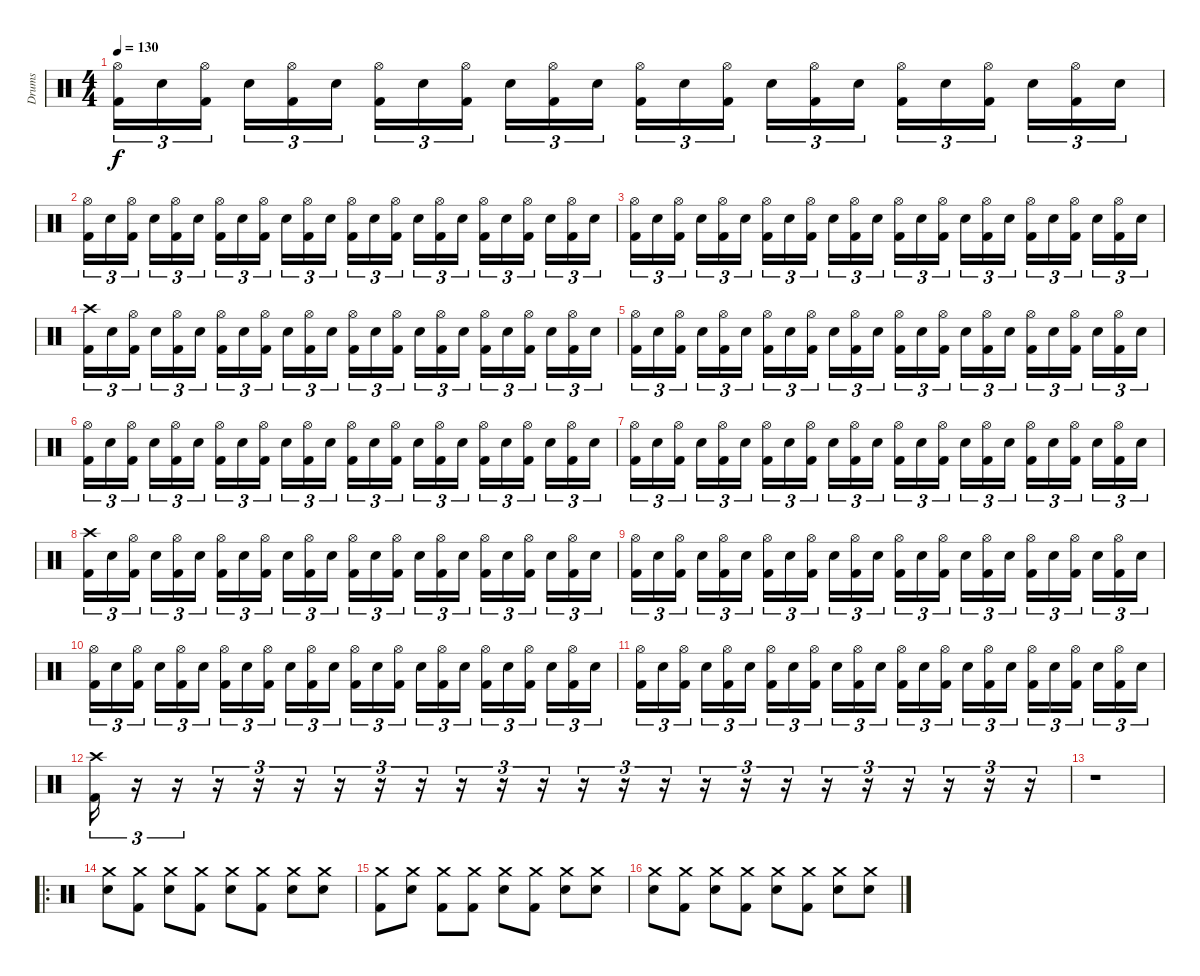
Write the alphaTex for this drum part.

\track ("Drums" "Drums") {instrument percussion}
\staff {score}
\articulation defaults
\ts (4 4)
\tempo 130
\clef neutral
\ks c
("Hi-Hat (open)" "Kick (hit) 2").16{tu (3 2) dy f} "Electric Snare (hit)".16{tu (3 2)} ("Hi-Hat (open)" "Kick (hit) 2").16{tu (3 2)} "Electric Snare (hit)".16{tu (3 2)} ("Hi-Hat (open)" "Kick (hit) 2").16{tu (3 2)} "Electric Snare (hit)".16{tu (3 2)} ("Hi-Hat (open)" "Kick (hit) 2").16{tu (3 2)} "Electric Snare (hit)".16{tu (3 2)} ("Hi-Hat (open)" "Kick (hit) 2").16{tu (3 2)} "Electric Snare (hit)".16{tu (3 2)} ("Hi-Hat (open)" "Kick (hit) 2").16{tu (3 2)} "Electric Snare (hit)".16{tu (3 2)} ("Hi-Hat (open)" "Kick (hit) 2").16{tu (3 2)} "Electric Snare (hit)".16{tu (3 2)} ("Hi-Hat (open)" "Kick (hit) 2").16{tu (3 2)} "Electric Snare (hit)".16{tu (3 2)} ("Hi-Hat (open)" "Kick (hit) 2").16{tu (3 2)} "Electric Snare (hit)".16{tu (3 2)} ("Hi-Hat (open)" "Kick (hit) 2").16{tu (3 2)} "Electric Snare (hit)".16{tu (3 2)} ("Hi-Hat (open)" "Kick (hit) 2").16{tu (3 2)} "Electric Snare (hit)".16{tu (3 2)} ("Hi-Hat (open)" "Kick (hit) 2").16{tu (3 2)} "Electric Snare (hit)".16{tu (3 2)} |
("Hi-Hat (open)" "Kick (hit) 2").16{tu (3 2)} "Electric Snare (hit)".16{tu (3 2)} ("Hi-Hat (open)" "Kick (hit) 2").16{tu (3 2)} "Electric Snare (hit)".16{tu (3 2)} ("Hi-Hat (open)" "Kick (hit) 2").16{tu (3 2)} "Electric Snare (hit)".16{tu (3 2)} ("Hi-Hat (open)" "Kick (hit) 2").16{tu (3 2)} "Electric Snare (hit)".16{tu (3 2)} ("Hi-Hat (open)" "Kick (hit) 2").16{tu (3 2)} "Electric Snare (hit)".16{tu (3 2)} ("Hi-Hat (open)" "Kick (hit) 2").16{tu (3 2)} "Electric Snare (hit)".16{tu (3 2)} ("Hi-Hat (open)" "Kick (hit) 2").16{tu (3 2)} "Electric Snare (hit)".16{tu (3 2)} ("Hi-Hat (open)" "Kick (hit) 2").16{tu (3 2)} "Electric Snare (hit)".16{tu (3 2)} ("Hi-Hat (open)" "Kick (hit) 2").16{tu (3 2)} "Electric Snare (hit)".16{tu (3 2)} ("Hi-Hat (open)" "Kick (hit) 2").16{tu (3 2)} "Electric Snare (hit)".16{tu (3 2)} ("Hi-Hat (open)" "Kick (hit) 2").16{tu (3 2)} "Electric Snare (hit)".16{tu (3 2)} ("Hi-Hat (open)" "Kick (hit) 2").16{tu (3 2)} "Electric Snare (hit)".16{tu (3 2)} |
("Hi-Hat (open)" "Kick (hit) 2").16{tu (3 2)} "Electric Snare (hit)".16{tu (3 2)} ("Hi-Hat (open)" "Kick (hit) 2").16{tu (3 2)} "Electric Snare (hit)".16{tu (3 2)} ("Hi-Hat (open)" "Kick (hit) 2").16{tu (3 2)} "Electric Snare (hit)".16{tu (3 2)} ("Hi-Hat (open)" "Kick (hit) 2").16{tu (3 2)} "Electric Snare (hit)".16{tu (3 2)} ("Hi-Hat (open)" "Kick (hit) 2").16{tu (3 2)} "Electric Snare (hit)".16{tu (3 2)} ("Hi-Hat (open)" "Kick (hit) 2").16{tu (3 2)} "Electric Snare (hit)".16{tu (3 2)} ("Hi-Hat (open)" "Kick (hit) 2").16{tu (3 2)} "Electric Snare (hit)".16{tu (3 2)} ("Hi-Hat (open)" "Kick (hit) 2").16{tu (3 2)} "Electric Snare (hit)".16{tu (3 2)} ("Hi-Hat (open)" "Kick (hit) 2").16{tu (3 2)} "Electric Snare (hit)".16{tu (3 2)} ("Hi-Hat (open)" "Kick (hit) 2").16{tu (3 2)} "Electric Snare (hit)".16{tu (3 2)} ("Hi-Hat (open)" "Kick (hit) 2").16{tu (3 2)} "Electric Snare (hit)".16{tu (3 2)} ("Hi-Hat (open)" "Kick (hit) 2").16{tu (3 2)} "Electric Snare (hit)".16{tu (3 2)} |
("Crash high (hit)" "Kick (hit) 2").16{tu (3 2)} "Electric Snare (hit)".16{tu (3 2)} ("Hi-Hat (open)" "Kick (hit) 2").16{tu (3 2)} "Electric Snare (hit)".16{tu (3 2)} ("Hi-Hat (open)" "Kick (hit) 2").16{tu (3 2)} "Electric Snare (hit)".16{tu (3 2)} ("Hi-Hat (open)" "Kick (hit) 2").16{tu (3 2)} "Electric Snare (hit)".16{tu (3 2)} ("Hi-Hat (open)" "Kick (hit) 2").16{tu (3 2)} "Electric Snare (hit)".16{tu (3 2)} ("Hi-Hat (open)" "Kick (hit) 2").16{tu (3 2)} "Electric Snare (hit)".16{tu (3 2)} ("Hi-Hat (open)" "Kick (hit) 2").16{tu (3 2)} "Electric Snare (hit)".16{tu (3 2)} ("Hi-Hat (open)" "Kick (hit) 2").16{tu (3 2)} "Electric Snare (hit)".16{tu (3 2)} ("Hi-Hat (open)" "Kick (hit) 2").16{tu (3 2)} "Electric Snare (hit)".16{tu (3 2)} ("Hi-Hat (open)" "Kick (hit) 2").16{tu (3 2)} "Electric Snare (hit)".16{tu (3 2)} ("Hi-Hat (open)" "Kick (hit) 2").16{tu (3 2)} "Electric Snare (hit)".16{tu (3 2)} ("Hi-Hat (open)" "Kick (hit) 2").16{tu (3 2)} "Electric Snare (hit)".16{tu (3 2)} |
("Hi-Hat (open)" "Kick (hit) 2").16{tu (3 2)} "Electric Snare (hit)".16{tu (3 2)} ("Hi-Hat (open)" "Kick (hit) 2").16{tu (3 2)} "Electric Snare (hit)".16{tu (3 2)} ("Hi-Hat (open)" "Kick (hit) 2").16{tu (3 2)} "Electric Snare (hit)".16{tu (3 2)} ("Hi-Hat (open)" "Kick (hit) 2").16{tu (3 2)} "Electric Snare (hit)".16{tu (3 2)} ("Hi-Hat (open)" "Kick (hit) 2").16{tu (3 2)} "Electric Snare (hit)".16{tu (3 2)} ("Hi-Hat (open)" "Kick (hit) 2").16{tu (3 2)} "Electric Snare (hit)".16{tu (3 2)} ("Hi-Hat (open)" "Kick (hit) 2").16{tu (3 2)} "Electric Snare (hit)".16{tu (3 2)} ("Hi-Hat (open)" "Kick (hit) 2").16{tu (3 2)} "Electric Snare (hit)".16{tu (3 2)} ("Hi-Hat (open)" "Kick (hit) 2").16{tu (3 2)} "Electric Snare (hit)".16{tu (3 2)} ("Hi-Hat (open)" "Kick (hit) 2").16{tu (3 2)} "Electric Snare (hit)".16{tu (3 2)} ("Hi-Hat (open)" "Kick (hit) 2").16{tu (3 2)} "Electric Snare (hit)".16{tu (3 2)} ("Hi-Hat (open)" "Kick (hit) 2").16{tu (3 2)} "Electric Snare (hit)".16{tu (3 2)} |
("Hi-Hat (open)" "Kick (hit) 2").16{tu (3 2)} "Electric Snare (hit)".16{tu (3 2)} ("Hi-Hat (open)" "Kick (hit) 2").16{tu (3 2)} "Electric Snare (hit)".16{tu (3 2)} ("Hi-Hat (open)" "Kick (hit) 2").16{tu (3 2)} "Electric Snare (hit)".16{tu (3 2)} ("Hi-Hat (open)" "Kick (hit) 2").16{tu (3 2)} "Electric Snare (hit)".16{tu (3 2)} ("Hi-Hat (open)" "Kick (hit) 2").16{tu (3 2)} "Electric Snare (hit)".16{tu (3 2)} ("Hi-Hat (open)" "Kick (hit) 2").16{tu (3 2)} "Electric Snare (hit)".16{tu (3 2)} ("Hi-Hat (open)" "Kick (hit) 2").16{tu (3 2)} "Electric Snare (hit)".16{tu (3 2)} ("Hi-Hat (open)" "Kick (hit) 2").16{tu (3 2)} "Electric Snare (hit)".16{tu (3 2)} ("Hi-Hat (open)" "Kick (hit) 2").16{tu (3 2)} "Electric Snare (hit)".16{tu (3 2)} ("Hi-Hat (open)" "Kick (hit) 2").16{tu (3 2)} "Electric Snare (hit)".16{tu (3 2)} ("Hi-Hat (open)" "Kick (hit) 2").16{tu (3 2)} "Electric Snare (hit)".16{tu (3 2)} ("Hi-Hat (open)" "Kick (hit) 2").16{tu (3 2)} "Electric Snare (hit)".16{tu (3 2)} |
("Hi-Hat (open)" "Kick (hit) 2").16{tu (3 2)} "Electric Snare (hit)".16{tu (3 2)} ("Hi-Hat (open)" "Kick (hit) 2").16{tu (3 2)} "Electric Snare (hit)".16{tu (3 2)} ("Hi-Hat (open)" "Kick (hit) 2").16{tu (3 2)} "Electric Snare (hit)".16{tu (3 2)} ("Hi-Hat (open)" "Kick (hit) 2").16{tu (3 2)} "Electric Snare (hit)".16{tu (3 2)} ("Hi-Hat (open)" "Kick (hit) 2").16{tu (3 2)} "Electric Snare (hit)".16{tu (3 2)} ("Hi-Hat (open)" "Kick (hit) 2").16{tu (3 2)} "Electric Snare (hit)".16{tu (3 2)} ("Hi-Hat (open)" "Kick (hit) 2").16{tu (3 2)} "Electric Snare (hit)".16{tu (3 2)} ("Hi-Hat (open)" "Kick (hit) 2").16{tu (3 2)} "Electric Snare (hit)".16{tu (3 2)} ("Hi-Hat (open)" "Kick (hit) 2").16{tu (3 2)} "Electric Snare (hit)".16{tu (3 2)} ("Hi-Hat (open)" "Kick (hit) 2").16{tu (3 2)} "Electric Snare (hit)".16{tu (3 2)} ("Hi-Hat (open)" "Kick (hit) 2").16{tu (3 2)} "Electric Snare (hit)".16{tu (3 2)} ("Hi-Hat (open)" "Kick (hit) 2").16{tu (3 2)} "Electric Snare (hit)".16{tu (3 2)} |
("Crash high (hit)" "Kick (hit) 2").16{tu (3 2)} "Electric Snare (hit)".16{tu (3 2)} ("Hi-Hat (open)" "Kick (hit) 2").16{tu (3 2)} "Electric Snare (hit)".16{tu (3 2)} ("Hi-Hat (open)" "Kick (hit) 2").16{tu (3 2)} "Electric Snare (hit)".16{tu (3 2)} ("Hi-Hat (open)" "Kick (hit) 2").16{tu (3 2)} "Electric Snare (hit)".16{tu (3 2)} ("Hi-Hat (open)" "Kick (hit) 2").16{tu (3 2)} "Electric Snare (hit)".16{tu (3 2)} ("Hi-Hat (open)" "Kick (hit) 2").16{tu (3 2)} "Electric Snare (hit)".16{tu (3 2)} ("Hi-Hat (open)" "Kick (hit) 2").16{tu (3 2)} "Electric Snare (hit)".16{tu (3 2)} ("Hi-Hat (open)" "Kick (hit) 2").16{tu (3 2)} "Electric Snare (hit)".16{tu (3 2)} ("Hi-Hat (open)" "Kick (hit) 2").16{tu (3 2)} "Electric Snare (hit)".16{tu (3 2)} ("Hi-Hat (open)" "Kick (hit) 2").16{tu (3 2)} "Electric Snare (hit)".16{tu (3 2)} ("Hi-Hat (open)" "Kick (hit) 2").16{tu (3 2)} "Electric Snare (hit)".16{tu (3 2)} ("Hi-Hat (open)" "Kick (hit) 2").16{tu (3 2)} "Electric Snare (hit)".16{tu (3 2)} |
("Hi-Hat (open)" "Kick (hit) 2").16{tu (3 2)} "Electric Snare (hit)".16{tu (3 2)} ("Hi-Hat (open)" "Kick (hit) 2").16{tu (3 2)} "Electric Snare (hit)".16{tu (3 2)} ("Hi-Hat (open)" "Kick (hit) 2").16{tu (3 2)} "Electric Snare (hit)".16{tu (3 2)} ("Hi-Hat (open)" "Kick (hit) 2").16{tu (3 2)} "Electric Snare (hit)".16{tu (3 2)} ("Hi-Hat (open)" "Kick (hit) 2").16{tu (3 2)} "Electric Snare (hit)".16{tu (3 2)} ("Hi-Hat (open)" "Kick (hit) 2").16{tu (3 2)} "Electric Snare (hit)".16{tu (3 2)} ("Hi-Hat (open)" "Kick (hit) 2").16{tu (3 2)} "Electric Snare (hit)".16{tu (3 2)} ("Hi-Hat (open)" "Kick (hit) 2").16{tu (3 2)} "Electric Snare (hit)".16{tu (3 2)} ("Hi-Hat (open)" "Kick (hit) 2").16{tu (3 2)} "Electric Snare (hit)".16{tu (3 2)} ("Hi-Hat (open)" "Kick (hit) 2").16{tu (3 2)} "Electric Snare (hit)".16{tu (3 2)} ("Hi-Hat (open)" "Kick (hit) 2").16{tu (3 2)} "Electric Snare (hit)".16{tu (3 2)} ("Hi-Hat (open)" "Kick (hit) 2").16{tu (3 2)} "Electric Snare (hit)".16{tu (3 2)} |
("Hi-Hat (open)" "Kick (hit) 2").16{tu (3 2)} "Electric Snare (hit)".16{tu (3 2)} ("Hi-Hat (open)" "Kick (hit) 2").16{tu (3 2)} "Electric Snare (hit)".16{tu (3 2)} ("Hi-Hat (open)" "Kick (hit) 2").16{tu (3 2)} "Electric Snare (hit)".16{tu (3 2)} ("Hi-Hat (open)" "Kick (hit) 2").16{tu (3 2)} "Electric Snare (hit)".16{tu (3 2)} ("Hi-Hat (open)" "Kick (hit) 2").16{tu (3 2)} "Electric Snare (hit)".16{tu (3 2)} ("Hi-Hat (open)" "Kick (hit) 2").16{tu (3 2)} "Electric Snare (hit)".16{tu (3 2)} ("Hi-Hat (open)" "Kick (hit) 2").16{tu (3 2)} "Electric Snare (hit)".16{tu (3 2)} ("Hi-Hat (open)" "Kick (hit) 2").16{tu (3 2)} "Electric Snare (hit)".16{tu (3 2)} ("Hi-Hat (open)" "Kick (hit) 2").16{tu (3 2)} "Electric Snare (hit)".16{tu (3 2)} ("Hi-Hat (open)" "Kick (hit) 2").16{tu (3 2)} "Electric Snare (hit)".16{tu (3 2)} ("Hi-Hat (open)" "Kick (hit) 2").16{tu (3 2)} "Electric Snare (hit)".16{tu (3 2)} ("Hi-Hat (open)" "Kick (hit) 2").16{tu (3 2)} "Electric Snare (hit)".16{tu (3 2)} |
("Hi-Hat (open)" "Kick (hit) 2").16{tu (3 2)} "Electric Snare (hit)".16{tu (3 2)} ("Hi-Hat (open)" "Kick (hit) 2").16{tu (3 2)} "Electric Snare (hit)".16{tu (3 2)} ("Hi-Hat (open)" "Kick (hit) 2").16{tu (3 2)} "Electric Snare (hit)".16{tu (3 2)} ("Hi-Hat (open)" "Kick (hit) 2").16{tu (3 2)} "Electric Snare (hit)".16{tu (3 2)} ("Hi-Hat (open)" "Kick (hit) 2").16{tu (3 2)} "Electric Snare (hit)".16{tu (3 2)} ("Hi-Hat (open)" "Kick (hit) 2").16{tu (3 2)} "Electric Snare (hit)".16{tu (3 2)} ("Hi-Hat (open)" "Kick (hit) 2").16{tu (3 2)} "Electric Snare (hit)".16{tu (3 2)} ("Hi-Hat (open)" "Kick (hit) 2").16{tu (3 2)} "Electric Snare (hit)".16{tu (3 2)} ("Hi-Hat (open)" "Kick (hit) 2").16{tu (3 2)} "Electric Snare (hit)".16{tu (3 2)} ("Hi-Hat (open)" "Kick (hit) 2").16{tu (3 2)} "Electric Snare (hit)".16{tu (3 2)} ("Hi-Hat (open)" "Kick (hit) 2").16{tu (3 2)} "Electric Snare (hit)".16{tu (3 2)} ("Hi-Hat (open)" "Kick (hit) 2").16{tu (3 2)} "Electric Snare (hit)".16{tu (3 2)} |
("Crash high (hit)" "Kick (hit) 2").16{tu (3 2)} r.16{tu (3 2)} r.16{tu (3 2)} r.16{tu (3 2)} r.16{tu (3 2)} r.16{tu (3 2)} r.16{tu (3 2)} r.16{tu (3 2)} r.16{tu (3 2)} r.16{tu (3 2)} r.16{tu (3 2)} r.16{tu (3 2)} r.16{tu (3 2)} r.16{tu (3 2)} r.16{tu (3 2)} r.16{tu (3 2)} r.16{tu (3 2)} r.16{tu (3 2)} r.16{tu (3 2)} r.16{tu (3 2)} r.16{tu (3 2)} r.16{tu (3 2)} r.16{tu (3 2)} r.16{tu (3 2)} |
r.1 |
\ro
("Crash medium (hit)" "Snare (hit) 2").8 ("Crash medium (hit)" "Kick (hit) 2").8 ("Crash medium (hit)" "Snare (hit) 2").8 ("Crash medium (hit)" "Kick (hit) 2").8 ("Crash medium (hit)" "Snare (hit) 2").8 ("Crash medium (hit)" "Kick (hit) 2").8 ("Crash medium (hit)" "Snare (hit) 2").8 ("Crash medium (hit)" "Snare (hit) 2").8 |
("Crash medium (hit)" "Kick (hit) 2").8 ("Crash medium (hit)" "Snare (hit) 2").8 ("Crash medium (hit)" "Kick (hit) 2").8 ("Crash medium (hit)" "Kick (hit) 2").8 ("Crash medium (hit)" "Snare (hit) 2").8 ("Crash medium (hit)" "Kick (hit) 2").8 ("Crash medium (hit)" "Snare (hit) 2").8 ("Crash medium (hit)" "Snare (hit) 2").8 |
("Crash medium (hit)" "Snare (hit) 2").8 ("Crash medium (hit)" "Kick (hit) 2").8 ("Crash medium (hit)" "Snare (hit) 2").8 ("Crash medium (hit)" "Kick (hit) 2").8 ("Crash medium (hit)" "Snare (hit) 2").8 ("Crash medium (hit)" "Kick (hit) 2").8 ("Crash medium (hit)" "Snare (hit) 2").8 ("Crash medium (hit)" "Snare (hit) 2").8
